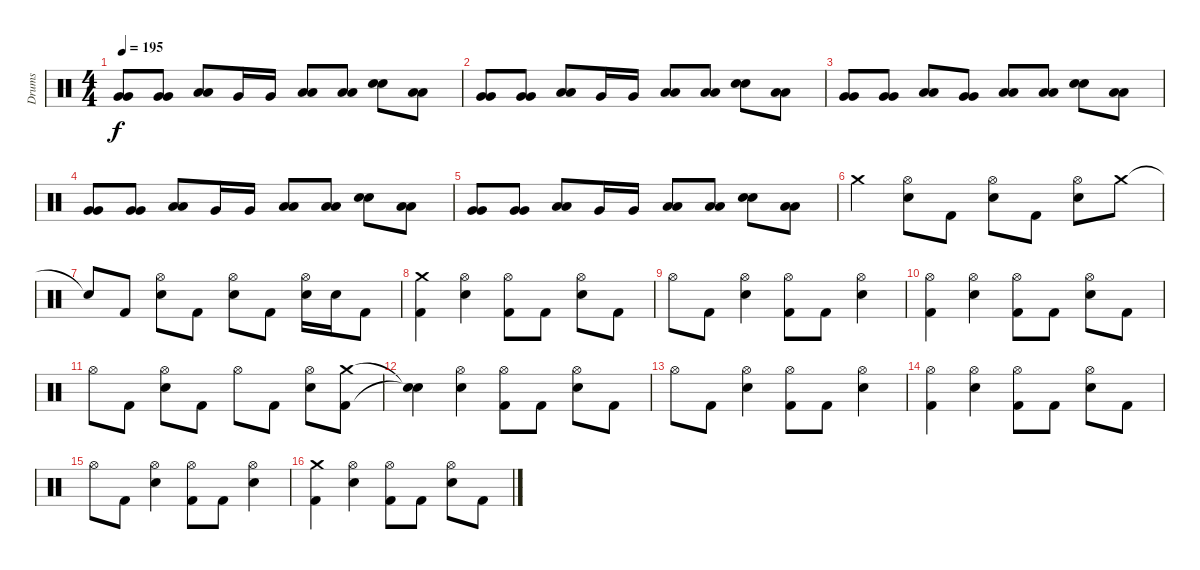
\track ("Drums" "Drums") {instrument percussion}
\staff {score}
\articulation defaults
\ts (4 4)
\tempo 195
\clef neutral
\ks c
("Very Low Tom (hit)" "Very Low Tom (hit)").8{dy f} ("Very Low Tom (hit)" "Very Low Tom (hit)").8 ("Low Tom (hit)" "Low Tom (hit)").8 "Very Low Tom (hit)".16 "Very Low Tom (hit)".16 ("Low Tom (hit)" "Low Tom (hit)").8 ("Low Tom (hit)" "Low Tom (hit)").8 ("Electric Snare (hit)" "Electric Snare (hit)").8 ("Low Tom (hit)" "Low Tom (hit)").8 |
("Very Low Tom (hit)" "Very Low Tom (hit)").8 ("Very Low Tom (hit)" "Very Low Tom (hit)").8 ("Low Tom (hit)" "Low Tom (hit)").8 "Very Low Tom (hit)".16 "Very Low Tom (hit)".16 ("Low Tom (hit)" "Low Tom (hit)").8 ("Low Tom (hit)" "Low Tom (hit)").8 ("Electric Snare (hit)" "Electric Snare (hit)").8 ("Low Tom (hit)" "Low Tom (hit)").8 |
("Very Low Tom (hit)" "Very Low Tom (hit)").8 ("Very Low Tom (hit)" "Very Low Tom (hit)").8 ("Low Tom (hit)" "Low Tom (hit)").8 ("Very Low Tom (hit)" "Very Low Tom (hit)").8 ("Low Tom (hit)" "Low Tom (hit)").8 ("Low Tom (hit)" "Low Tom (hit)").8 ("Electric Snare (hit)" "Electric Snare (hit)").8 ("Low Tom (hit)" "Low Tom (hit)").8 |
("Very Low Tom (hit)" "Very Low Tom (hit)").8 ("Very Low Tom (hit)" "Very Low Tom (hit)").8 ("Low Tom (hit)" "Low Tom (hit)").8 "Very Low Tom (hit)".16 "Very Low Tom (hit)".16 ("Low Tom (hit)" "Low Tom (hit)").8 ("Low Tom (hit)" "Low Tom (hit)").8 ("Electric Snare (hit)" "Electric Snare (hit)").8 ("Low Tom (hit)" "Low Tom (hit)").8 |
("Very Low Tom (hit)" "Very Low Tom (hit)").8 ("Very Low Tom (hit)" "Very Low Tom (hit)").8 ("Low Tom (hit)" "Low Tom (hit)").8 "Very Low Tom (hit)".16 "Very Low Tom (hit)".16 ("Low Tom (hit)" "Low Tom (hit)").8 ("Low Tom (hit)" "Low Tom (hit)").8 ("Electric Snare (hit)" "Electric Snare (hit)").8 ("Low Tom (hit)" "Low Tom (hit)").8 |
"Crash medium (hit)".4 ("Hi-Hat (open)" "Electric Snare (hit)").8 "Kick (hit) 2".8 ("Hi-Hat (open)" "Electric Snare (hit)").8 "Kick (hit) 2".8 ("Hi-Hat (open)" "Electric Snare (hit)").8 "Crash medium (hit)".8 |
"Snare (hit)"{t}.8 "Kick (hit) 2".8 ("Hi-Hat (open)" "Electric Snare (hit)").8 "Kick (hit) 2".8 ("Hi-Hat (open)" "Electric Snare (hit)").8 "Kick (hit) 2".8 ("Hi-Hat (open)" "Electric Snare (hit)").16 "Electric Snare (hit)".16 "Kick (hit) 2".8 |
\section ("" "")
("Crash medium (hit)" "Kick (hit) 2").4 ("Hi-Hat (open)" "Electric Snare (hit)").4 ("Hi-Hat (open)" "Kick (hit) 2").8 "Kick (hit) 2".8 ("Hi-Hat (open)" "Electric Snare (hit)").8 "Kick (hit) 2".8 |
"Hi-Hat (open)".8 "Kick (hit) 2".8 ("Hi-Hat (open)" "Electric Snare (hit)").4 ("Hi-Hat (open)" "Kick (hit) 2").8 "Kick (hit) 2".8 ("Hi-Hat (open)" "Electric Snare (hit)").4 |
("Hi-Hat (open)" "Kick (hit) 2").4 ("Hi-Hat (open)" "Electric Snare (hit)").4 ("Hi-Hat (open)" "Kick (hit) 2").8 "Kick (hit) 2".8 ("Hi-Hat (open)" "Electric Snare (hit)").8 "Kick (hit) 2".8 |
"Hi-Hat (open)".8 "Kick (hit) 2".8 ("Hi-Hat (open)" "Electric Snare (hit)").8 "Kick (hit) 2".8 "Hi-Hat (open)".8 "Kick (hit) 2".8 ("Hi-Hat (open)" "Electric Snare (hit)").8 ("Crash medium (hit)" "Kick (hit) 2").8 |
("Snare (hit)"{t} "Snare (hit)"{t}).4 ("Hi-Hat (open)" "Electric Snare (hit)").4 ("Hi-Hat (open)" "Kick (hit) 2").8 "Kick (hit) 2".8 ("Hi-Hat (open)" "Electric Snare (hit)").8 "Kick (hit) 2".8 |
"Hi-Hat (open)".8 "Kick (hit) 2".8 ("Hi-Hat (open)" "Electric Snare (hit)").4 ("Hi-Hat (open)" "Kick (hit) 2").8 "Kick (hit) 2".8 ("Hi-Hat (open)" "Electric Snare (hit)").4 |
("Hi-Hat (open)" "Kick (hit) 2").4 ("Hi-Hat (open)" "Electric Snare (hit)").4 ("Hi-Hat (open)" "Kick (hit) 2").8 "Kick (hit) 2".8 ("Hi-Hat (open)" "Electric Snare (hit)").8 "Kick (hit) 2".8 |
"Hi-Hat (open)".8 "Kick (hit) 2".8 ("Hi-Hat (open)" "Electric Snare (hit)").4 ("Hi-Hat (open)" "Kick (hit) 2").8 "Kick (hit) 2".8 ("Hi-Hat (open)" "Electric Snare (hit)").4 |
\section ("" "")
("Crash medium (hit)" "Kick (hit) 2").4 ("Hi-Hat (open)" "Electric Snare (hit)").4 ("Hi-Hat (open)" "Kick (hit) 2").8 "Kick (hit) 2".8 ("Hi-Hat (open)" "Electric Snare (hit)").8 "Kick (hit) 2".8
